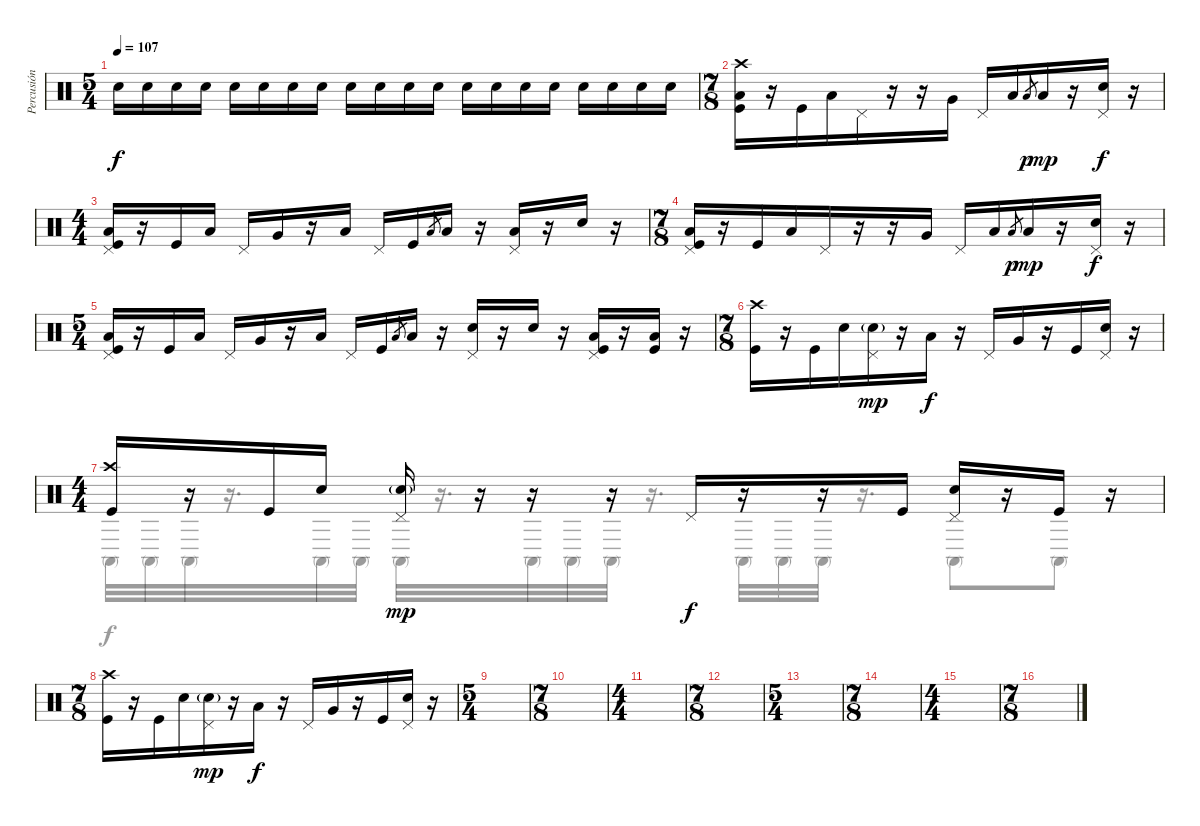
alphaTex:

\track ("Percusión" "Percusión") {instrument percussion}
\staff {score}
\articulation defaults
\voice
\ts (5 4)
\tempo 107
\clef neutral
\ks c "Snare (hit) 2".16{dy f volume 12} "Snare (hit) 2".16 "Snare (hit) 2".16 "Snare (hit) 2".16 "Snare (hit) 2".16 "Snare (hit) 2".16 "Snare (hit) 2".16 "Snare (hit) 2".16 "Snare (hit) 2".16 "Snare (hit) 2".16 "Snare (hit) 2".16 "Snare (hit) 2".16 "Snare (hit) 2".16 "Snare (hit) 2".16 "Snare (hit) 2".16 "Snare (hit) 2".16 "Snare (hit) 2".16 "Snare (hit) 2".16 "Snare (hit) 2".16 "Snare (hit) 2".16
|
\ts (7 8)
("Crash high (hit)" "Low Floor Tom (hit)" "Kick (hit)").16 r.16 "Kick (hit)".16 "Low Tom (hit)".16 "Pedal Hi-Hat (hit)".16 r.16 r.16 "Very Low Tom (hit)".16 "Pedal Hi-Hat (hit)".16 "Low Floor Tom (hit)".16 "Low Floor Tom (hit)".8{gr dy p} "Low Floor Tom (hit)".16{dy mp} r.16 ("Pedal Hi-Hat (hit)" "Snare (hit) 2").16{dy f} r.16 |
\ts (4 4)
("Pedal Hi-Hat (hit)" "Low Floor Tom (hit)" "Kick (hit)").16 r.16 "Kick (hit)".16 "Low Tom (hit)".16 "Pedal Hi-Hat (hit)".16 "Very Low Tom (hit)".16 r.16 "Low Floor Tom (hit)".16 "Pedal Hi-Hat (hit)".16 "Kick (hit)".16 "Low Floor Tom (hit)".8{gr} "Low Floor Tom (hit)".16 r.16 ("Pedal Hi-Hat (hit)" "Low Floor Tom (hit)").16 r.16 "Snare (hit) 2".16 r.16 |
\ts (7 8)
("Pedal Hi-Hat (hit)" "Low Floor Tom (hit)" "Kick (hit)").16 r.16 "Kick (hit)".16 "Low Tom (hit)".16 "Pedal Hi-Hat (hit)".16 r.16 r.16 "Very Low Tom (hit)".16 "Pedal Hi-Hat (hit)".16 "Low Floor Tom (hit)".16 "Low Floor Tom (hit)".8{gr dy p} "Low Floor Tom (hit)".16{dy mp} r.16 ("Pedal Hi-Hat (hit)" "Snare (hit) 2").16{dy f} r.16 |
\ts (5 4)
("Pedal Hi-Hat (hit)" "Low Floor Tom (hit)" "Kick (hit)").16 r.16 "Kick (hit)".16 "Low Tom (hit)".16 "Pedal Hi-Hat (hit)".16 "Very Low Tom (hit)".16 r.16 "Low Floor Tom (hit)".16 "Pedal Hi-Hat (hit)".16 "Kick (hit)".16 "Low Floor Tom (hit)".8{gr} "Low Floor Tom (hit)".16 r.16 ("Pedal Hi-Hat (hit)" "Snare (hit) 2").16 r.16 "Snare (hit) 2".16 r.16 ("Pedal Hi-Hat (hit)" "Low Floor Tom (hit)" "Kick (hit)").16 r.16 ("Low Floor Tom (hit)" "Kick (hit)").16 r.16 |
\ts (7 8)
("Crash high (hit)" "Kick (hit)").16 r.16 "Kick (hit)".16 "Snare (hit) 2".16 ("Pedal Hi-Hat (hit)" "Snare (hit) 2"{g}).16{dy mp} r.16 "Low Tom (hit)".16{dy f} r.16 "Pedal Hi-Hat (hit)".16 "Very Low Tom (hit)".16 r.16 "Kick (hit)".16 ("Pedal Hi-Hat (hit)" "Snare (hit) 2").16 r.16 |
\ts (4 4)
("Crash high (hit)" "Kick (hit)").16 r.16 "Kick (hit)".16 "Snare (hit) 2".16 ("Pedal Hi-Hat (hit)" "Snare (hit) 2"{g}).16{dy mp} r.16 r.16 r.16 "Pedal Hi-Hat (hit)".16{dy f} r.16 r.16 "Kick (hit)".16 ("Pedal Hi-Hat (hit)" "Snare (hit) 2").16 r.16 "Kick (hit)".16 r.16 |
\ts (7 8)
("Crash high (hit)" "Kick (hit)").16 r.16 "Kick (hit)".16 "Snare (hit) 2".16 ("Pedal Hi-Hat (hit)" "Snare (hit) 2"{g}).16{dy mp} r.16 "Low Tom (hit)".16{dy f} r.16 "Pedal Hi-Hat (hit)".16 "Very Low Tom (hit)".16 r.16 "Kick (hit)".16 ("Pedal Hi-Hat (hit)" "Snare (hit) 2").16 r.16 |
\ts (5 4)
|
\ts (7 8)
|
\ts (4 4)
|
\ts (7 8)
|
\ts (5 4)
|
\ts (7 8)
|
\ts (4 4)
|
\ts (7 8)
\voice
\clef neutral
\ottava regular
\simile none
\ks c
|
|
|
|
|
|
"Conga high (mute)".32 "Conga high (mute)".32 "Conga high (mute)".32 r.16{d} "Conga high (mute)".32 "Conga high (mute)".32 "Conga high (mute)".32 r.16{d} "Conga high (mute)".32 "Conga high (mute)".32 "Conga high (mute)".32 r.16{d} "Conga high (mute)".32 "Conga high (mute)".32 "Conga high (mute)".32 r.16{d} "Conga high (mute)".8 "Conga high (mute)".8 |
|
|
|
|
|
|
|
|
